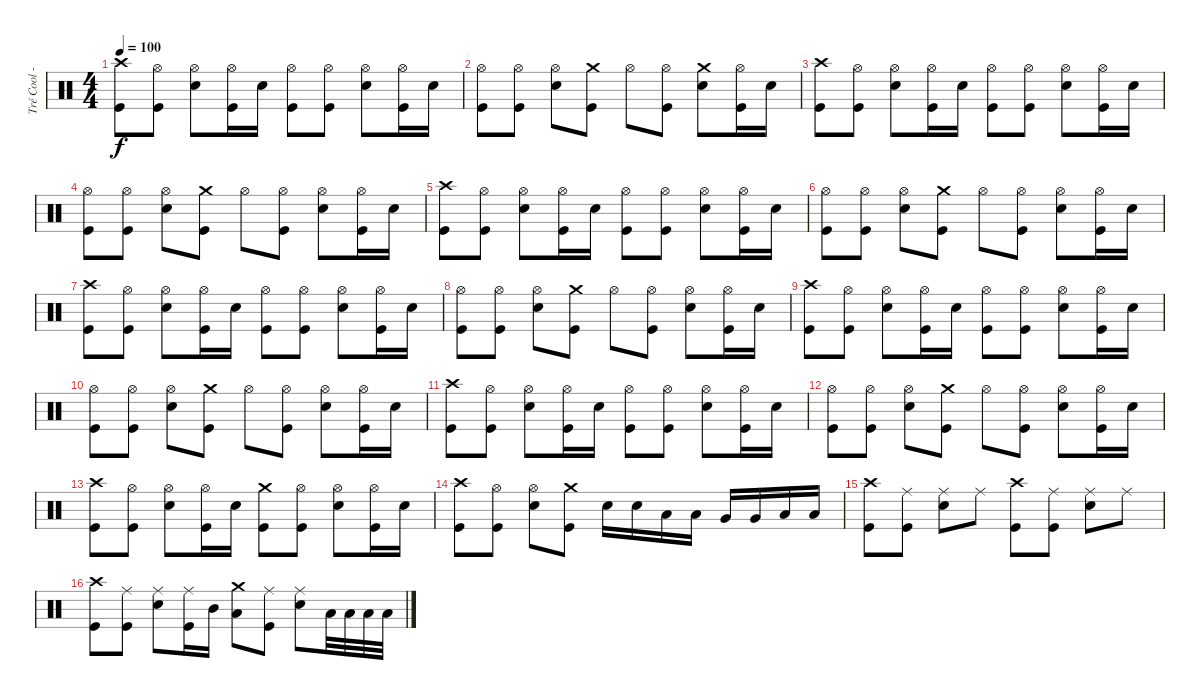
\track ("Tré Cool - Drums" "Tré Cool -") {instrument percussion}
\staff {score}
\articulation defaults
\ts (4 4)
\tempo 100
\clef neutral
\ks c
("Crash high (hit)" "Kick (hit)").8{dy f} ("Hi-Hat (open)" "Kick (hit)").8 ("Hi-Hat (open)" "Electric Snare (hit)").8 ("Hi-Hat (open)" "Kick (hit)").16 "Electric Snare (hit)".16 ("Hi-Hat (open)" "Kick (hit)").8 ("Hi-Hat (open)" "Kick (hit)").8 ("Hi-Hat (open)" "Electric Snare (hit)").8 ("Hi-Hat (open)" "Kick (hit)").16 "Electric Snare (hit)".16 |
("Hi-Hat (open)" "Kick (hit)").8 ("Hi-Hat (open)" "Kick (hit)").8 ("Hi-Hat (open)" "Electric Snare (hit)").8 ("Crash medium (hit)" "Kick (hit)").8 "Hi-Hat (open)".8 ("Hi-Hat (open)" "Kick (hit)").8 ("Crash medium (hit)" "Electric Snare (hit)").8 ("Hi-Hat (open)" "Kick (hit)").16 "Electric Snare (hit)".16 |
("Crash high (hit)" "Kick (hit)").8 ("Hi-Hat (open)" "Kick (hit)").8 ("Hi-Hat (open)" "Electric Snare (hit)").8 ("Hi-Hat (open)" "Kick (hit)").16 "Electric Snare (hit)".16 ("Hi-Hat (open)" "Kick (hit)").8 ("Hi-Hat (open)" "Kick (hit)").8 ("Hi-Hat (open)" "Electric Snare (hit)").8 ("Hi-Hat (open)" "Kick (hit)").16 "Electric Snare (hit)".16 |
("Hi-Hat (open)" "Kick (hit)").8 ("Hi-Hat (open)" "Kick (hit)").8 ("Hi-Hat (open)" "Electric Snare (hit)").8 ("Crash medium (hit)" "Kick (hit)").8 "Hi-Hat (open)".8 ("Hi-Hat (open)" "Kick (hit)").8 ("Hi-Hat (open)" "Electric Snare (hit)").8 ("Hi-Hat (open)" "Kick (hit)").16 "Electric Snare (hit)".16 |
("Crash high (hit)" "Kick (hit)").8 ("Hi-Hat (open)" "Kick (hit)").8 ("Hi-Hat (open)" "Electric Snare (hit)").8 ("Hi-Hat (open)" "Kick (hit)").16 "Electric Snare (hit)".16 ("Hi-Hat (open)" "Kick (hit)").8 ("Hi-Hat (open)" "Kick (hit)").8 ("Hi-Hat (open)" "Electric Snare (hit)").8 ("Hi-Hat (open)" "Kick (hit)").16 "Electric Snare (hit)".16 |
("Hi-Hat (open)" "Kick (hit)").8 ("Hi-Hat (open)" "Kick (hit)").8 ("Hi-Hat (open)" "Electric Snare (hit)").8 ("Crash medium (hit)" "Kick (hit)").8 "Hi-Hat (open)".8 ("Hi-Hat (open)" "Kick (hit)").8 ("Hi-Hat (open)" "Electric Snare (hit)").8 ("Hi-Hat (open)" "Kick (hit)").16 "Electric Snare (hit)".16 |
("Crash high (hit)" "Kick (hit)").8 ("Hi-Hat (open)" "Kick (hit)").8 ("Hi-Hat (open)" "Electric Snare (hit)").8 ("Hi-Hat (open)" "Kick (hit)").16 "Electric Snare (hit)".16 ("Hi-Hat (open)" "Kick (hit)").8 ("Hi-Hat (open)" "Kick (hit)").8 ("Hi-Hat (open)" "Electric Snare (hit)").8 ("Hi-Hat (open)" "Kick (hit)").16 "Electric Snare (hit)".16 |
("Hi-Hat (open)" "Kick (hit)").8 ("Hi-Hat (open)" "Kick (hit)").8 ("Hi-Hat (open)" "Electric Snare (hit)").8 ("Crash medium (hit)" "Kick (hit)").8 "Hi-Hat (open)".8 ("Hi-Hat (open)" "Kick (hit)").8 ("Hi-Hat (open)" "Electric Snare (hit)").8 ("Hi-Hat (open)" "Kick (hit)").16 "Electric Snare (hit)".16 |
("Crash high (hit)" "Kick (hit)").8 ("Hi-Hat (open)" "Kick (hit)").8 ("Hi-Hat (open)" "Electric Snare (hit)").8 ("Hi-Hat (open)" "Kick (hit)").16 "Electric Snare (hit)".16 ("Hi-Hat (open)" "Kick (hit)").8 ("Hi-Hat (open)" "Kick (hit)").8 ("Hi-Hat (open)" "Electric Snare (hit)").8 ("Hi-Hat (open)" "Kick (hit)").16 "Electric Snare (hit)".16 |
("Hi-Hat (open)" "Kick (hit)").8 ("Hi-Hat (open)" "Kick (hit)").8 ("Hi-Hat (open)" "Electric Snare (hit)").8 ("Crash medium (hit)" "Kick (hit)").8 "Hi-Hat (open)".8 ("Hi-Hat (open)" "Kick (hit)").8 ("Hi-Hat (open)" "Electric Snare (hit)").8 ("Hi-Hat (open)" "Kick (hit)").16 "Electric Snare (hit)".16 |
("Crash high (hit)" "Kick (hit)").8 ("Hi-Hat (open)" "Kick (hit)").8 ("Hi-Hat (open)" "Electric Snare (hit)").8 ("Hi-Hat (open)" "Kick (hit)").16 "Electric Snare (hit)".16 ("Hi-Hat (open)" "Kick (hit)").8 ("Hi-Hat (open)" "Kick (hit)").8 ("Hi-Hat (open)" "Electric Snare (hit)").8 ("Hi-Hat (open)" "Kick (hit)").16 "Electric Snare (hit)".16 |
("Hi-Hat (open)" "Kick (hit)").8 ("Hi-Hat (open)" "Kick (hit)").8 ("Hi-Hat (open)" "Electric Snare (hit)").8 ("Crash medium (hit)" "Kick (hit)").8 "Hi-Hat (open)".8 ("Hi-Hat (open)" "Kick (hit)").8 ("Hi-Hat (open)" "Electric Snare (hit)").8 ("Hi-Hat (open)" "Kick (hit)").16 "Electric Snare (hit)".16 |
("Crash high (hit)" "Kick (hit)").8 ("Hi-Hat (open)" "Kick (hit)").8 ("Hi-Hat (open)" "Electric Snare (hit)").8 ("Hi-Hat (open)" "Kick (hit)").16 "Electric Snare (hit)".16 ("Crash medium (hit)" "Kick (hit)").8 ("Hi-Hat (open)" "Kick (hit)").8 ("Hi-Hat (open)" "Electric Snare (hit)").8 ("Hi-Hat (open)" "Kick (hit)").16 "Electric Snare (hit)".16 |
("Crash high (hit)" "Kick (hit)").8 ("Hi-Hat (open)" "Kick (hit)").8 ("Hi-Hat (open)" "Electric Snare (hit)").8 ("Crash medium (hit)" "Kick (hit)").8 "Electric Snare (hit)".16 "Electric Snare (hit)".16 "Low Tom (hit)".16 "Low Tom (hit)".16 "Very Low Tom (hit)".16 "Very Low Tom (hit)".16 "Low Floor Tom (hit)".16 "Low Floor Tom (hit)".16 |
("Crash high (hit)" "Kick (hit)").8 ("Ride (middle)" "Kick (hit)").8 ("Ride (middle)" "Electric Snare (hit)").8 "Ride (middle)".8 ("Crash high (hit)" "Kick (hit)").8 ("Ride (middle)" "Kick (hit)").8 ("Ride (middle)" "Electric Snare (hit)").8 "Ride (middle)".8 |
("Crash high (hit)" "Kick (hit)").8 ("Ride (middle)" "Kick (hit)").8 ("Ride (middle)" "Electric Snare (hit)").8 ("Ride (middle)" "Kick (hit)").16 "Mid Tom (hit)".16 ("Crash medium (hit)" "Low Tom (hit)").8 ("Ride (middle)" "Kick (hit)").8 ("Ride (middle)" "Electric Snare (hit)").8 "Low Floor Tom (hit)".32 "Low Floor Tom (hit)".32 "Low Floor Tom (hit)".32 "Low Floor Tom (hit)".32
